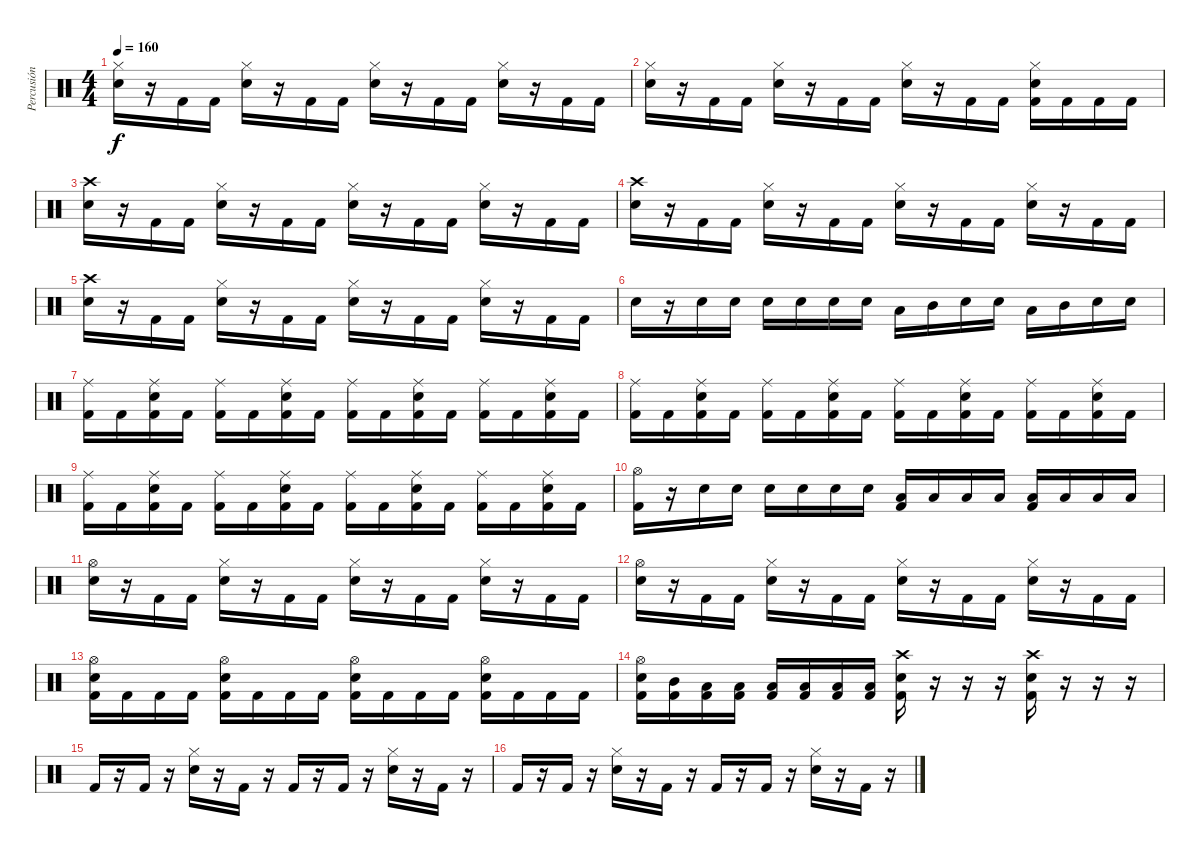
\track ("Percusión" "Percusión") {instrument percussion}
\staff {score}
\articulation defaults
\ts (4 4)
\tempo 160
\clef neutral
\ks c
("Hi-Hat (closed)" "Snare (hit) 2").16{dy f} r.16 "Kick (hit) 2".16 "Kick (hit) 2".16 ("Hi-Hat (closed)" "Snare (hit) 2").16 r.16 "Kick (hit) 2".16 "Kick (hit) 2".16 ("Hi-Hat (closed)" "Snare (hit) 2").16 r.16 "Kick (hit) 2".16 "Kick (hit) 2".16 ("Hi-Hat (closed)" "Snare (hit) 2").16 r.16 "Kick (hit) 2".16 "Kick (hit) 2".16 |
("Hi-Hat (closed)" "Snare (hit) 2").16 r.16 "Kick (hit) 2".16 "Kick (hit) 2".16 ("Hi-Hat (closed)" "Snare (hit) 2").16 r.16 "Kick (hit) 2".16 "Kick (hit) 2".16 ("Hi-Hat (closed)" "Snare (hit) 2").16 r.16 "Kick (hit) 2".16 "Kick (hit) 2".16 ("Hi-Hat (closed)" "Snare (hit) 2" "Kick (hit) 2").16 "Kick (hit) 2".16 "Kick (hit) 2".16 "Kick (hit) 2".16 |
("Crash high (hit)" "Snare (hit) 2").16 r.16 "Kick (hit) 2".16 "Kick (hit) 2".16 ("Hi-Hat (closed)" "Snare (hit) 2").16 r.16 "Kick (hit) 2".16 "Kick (hit) 2".16 ("Hi-Hat (closed)" "Snare (hit) 2").16 r.16 "Kick (hit) 2".16 "Kick (hit) 2".16 ("Hi-Hat (closed)" "Snare (hit) 2").16 r.16 "Kick (hit) 2".16 "Kick (hit) 2".16 |
("Crash high (hit)" "Snare (hit) 2").16 r.16 "Kick (hit) 2".16 "Kick (hit) 2".16 ("Hi-Hat (closed)" "Snare (hit) 2").16 r.16 "Kick (hit) 2".16 "Kick (hit) 2".16 ("Hi-Hat (closed)" "Snare (hit) 2").16 r.16 "Kick (hit) 2".16 "Kick (hit) 2".16 ("Hi-Hat (closed)" "Snare (hit) 2").16 r.16 "Kick (hit) 2".16 "Kick (hit) 2".16 |
("Crash high (hit)" "Snare (hit) 2").16 r.16 "Kick (hit) 2".16 "Kick (hit) 2".16 ("Hi-Hat (closed)" "Snare (hit) 2").16 r.16 "Kick (hit) 2".16 "Kick (hit) 2".16 ("Hi-Hat (closed)" "Snare (hit) 2").16 r.16 "Kick (hit) 2".16 "Kick (hit) 2".16 ("Hi-Hat (closed)" "Snare (hit) 2").16 r.16 "Kick (hit) 2".16 "Kick (hit) 2".16 |
"Snare (hit) 2".16 r.16 "Snare (hit) 2".16 "Snare (hit) 2".16 "Snare (hit) 2".16 "Snare (hit) 2".16 "Snare (hit) 2".16 "Snare (hit) 2".16 "Low Tom (hit)".16 "Mid Tom (hit)".16 "Snare (hit) 2".16 "Snare (hit) 2".16 "Low Tom (hit)".16 "Mid Tom (hit)".16 "Snare (hit) 2".16 "Snare (hit) 2".16 |
("Ride (middle)" "Kick (hit) 2").16 "Kick (hit) 2".16 ("Ride (middle)" "Snare (hit) 2" "Kick (hit) 2").16 "Kick (hit) 2".16 ("Ride (middle)" "Kick (hit) 2").16 "Kick (hit) 2".16 ("Ride (middle)" "Snare (hit) 2" "Kick (hit) 2").16 "Kick (hit) 2".16 ("Ride (middle)" "Kick (hit) 2").16 "Kick (hit) 2".16 ("Ride (middle)" "Snare (hit) 2" "Kick (hit) 2").16 "Kick (hit) 2".16 ("Ride (middle)" "Kick (hit) 2").16 "Kick (hit) 2".16 ("Ride (middle)" "Snare (hit) 2" "Kick (hit) 2").16 "Kick (hit) 2".16 |
("Ride (middle)" "Kick (hit) 2").16 "Kick (hit) 2".16 ("Ride (middle)" "Snare (hit) 2" "Kick (hit) 2").16 "Kick (hit) 2".16 ("Ride (middle)" "Kick (hit) 2").16 "Kick (hit) 2".16 ("Ride (middle)" "Snare (hit) 2" "Kick (hit) 2").16 "Kick (hit) 2".16 ("Ride (middle)" "Kick (hit) 2").16 "Kick (hit) 2".16 ("Ride (middle)" "Snare (hit) 2" "Kick (hit) 2").16 "Kick (hit) 2".16 ("Ride (middle)" "Kick (hit) 2").16 "Kick (hit) 2".16 ("Ride (middle)" "Snare (hit) 2" "Kick (hit) 2").16 "Kick (hit) 2".16 |
("Ride (middle)" "Kick (hit) 2").16 "Kick (hit) 2".16 ("Ride (middle)" "Snare (hit) 2" "Kick (hit) 2").16 "Kick (hit) 2".16 ("Ride (middle)" "Kick (hit) 2").16 "Kick (hit) 2".16 ("Ride (middle)" "Snare (hit) 2" "Kick (hit) 2").16 "Kick (hit) 2".16 ("Ride (middle)" "Kick (hit) 2").16 "Kick (hit) 2".16 ("Ride (middle)" "Snare (hit) 2" "Kick (hit) 2").16 "Kick (hit) 2".16 ("Ride (middle)" "Kick (hit) 2").16 "Kick (hit) 2".16 ("Ride (middle)" "Snare (hit) 2" "Kick (hit) 2").16 "Kick (hit) 2".16 |
("Hi-Hat (open)" "Kick (hit) 2").16 r.16 "Snare (hit) 2".16 "Snare (hit) 2".16 "Snare (hit) 2".16 "Snare (hit) 2".16 "Snare (hit) 2".16 "Snare (hit) 2".16 ("Low Tom (hit)" "Kick (hit) 2").16 "Low Tom (hit)".16 "Low Tom (hit)".16 "Low Tom (hit)".16 ("Low Tom (hit)" "Kick (hit) 2").16 "Low Tom (hit)".16 "Low Tom (hit)".16 "Low Tom (hit)".16 |
("Hi-Hat (open)" "Snare (hit) 2").16 r.16 "Kick (hit) 2".16 "Kick (hit) 2".16 ("Hi-Hat (closed)" "Snare (hit) 2").16 r.16 "Kick (hit) 2".16 "Kick (hit) 2".16 ("Hi-Hat (closed)" "Snare (hit) 2").16 r.16 "Kick (hit) 2".16 "Kick (hit) 2".16 ("Hi-Hat (closed)" "Snare (hit) 2").16 r.16 "Kick (hit) 2".16 "Kick (hit) 2".16 |
("Hi-Hat (open)" "Snare (hit) 2").16 r.16 "Kick (hit) 2".16 "Kick (hit) 2".16 ("Hi-Hat (closed)" "Snare (hit) 2").16 r.16 "Kick (hit) 2".16 "Kick (hit) 2".16 ("Hi-Hat (closed)" "Snare (hit) 2").16 r.16 "Kick (hit) 2".16 "Kick (hit) 2".16 ("Hi-Hat (closed)" "Snare (hit) 2").16 r.16 "Kick (hit) 2".16 "Kick (hit) 2".16 |
("Hi-Hat (open)" "Snare (hit) 2" "Kick (hit) 2").16 "Kick (hit) 2".16 "Kick (hit) 2".16 "Kick (hit) 2".16 ("Hi-Hat (open)" "Snare (hit) 2" "Kick (hit) 2").16 "Kick (hit) 2".16 "Kick (hit) 2".16 "Kick (hit) 2".16 ("Hi-Hat (open)" "Snare (hit) 2" "Kick (hit) 2").16 "Kick (hit) 2".16 "Kick (hit) 2".16 "Kick (hit) 2".16 ("Hi-Hat (open)" "Snare (hit) 2" "Kick (hit) 2").16 "Kick (hit) 2".16 "Kick (hit) 2".16 "Kick (hit) 2".16 |
("Hi-Hat (open)" "Snare (hit) 2" "Kick (hit) 2").16 ("Mid Tom (hit)" "Kick (hit) 2").16 ("Low Tom (hit)" "Kick (hit) 2").16 ("Low Tom (hit)" "Kick (hit) 2").16 ("Low Tom (hit)" "Kick (hit) 2").16 ("Low Tom (hit)" "Kick (hit) 2").16 ("Low Tom (hit)" "Kick (hit) 2").16 ("Low Tom (hit)" "Kick (hit) 2").16 ("Crash high (hit)" "Snare (hit) 2" "Kick (hit) 2").16 r.16 r.16 r.16 ("Crash high (hit)" "Snare (hit) 2" "Kick (hit) 2").16 r.16 r.16 r.16 |
"Kick (hit) 2".16 r.16 "Kick (hit) 2".16 r.16 ("Hi-Hat (closed)" "Snare (hit) 2").16 r.16 "Kick (hit) 2".16 r.16 "Kick (hit) 2".16 r.16 "Kick (hit) 2".16 r.16 ("Hi-Hat (closed)" "Snare (hit) 2").16 r.16 "Kick (hit) 2".16 r.16 |
"Kick (hit) 2".16 r.16 "Kick (hit) 2".16 r.16 ("Hi-Hat (closed)" "Snare (hit) 2").16 r.16 "Kick (hit) 2".16 r.16 "Kick (hit) 2".16 r.16 "Kick (hit) 2".16 r.16 ("Hi-Hat (closed)" "Snare (hit) 2").16 r.16 "Kick (hit) 2".16 r.16
